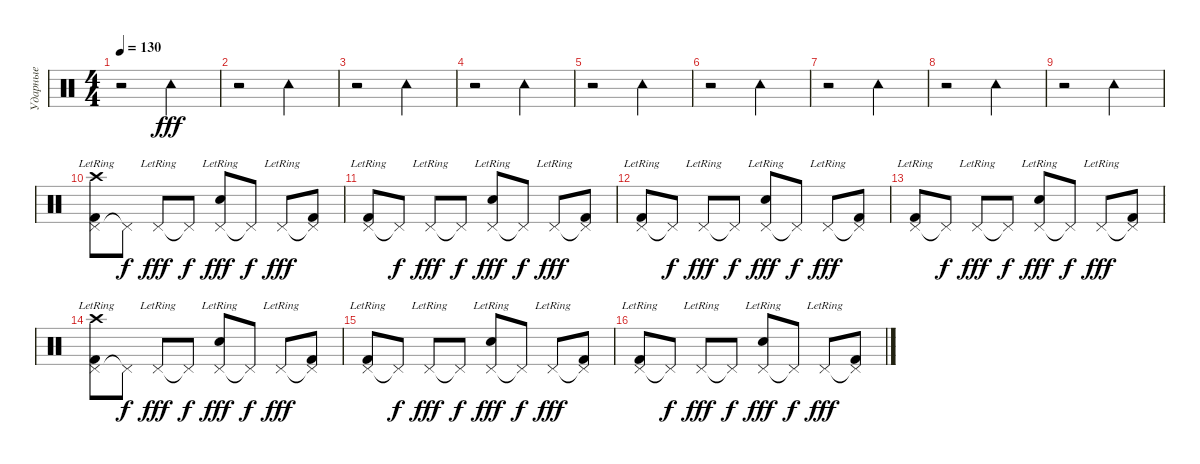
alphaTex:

\track ("Ударные" "Ударные") {instrument percussion}
\staff {score}
\articulation defaults
\ts (4 4)
\tempo 130
\clef neutral
\ks c
r.2{dy fff} "Tambourine (hit)".2 |
r.2 "Tambourine (hit)".2 |
r.2 "Tambourine (hit)".2 |
r.2 "Tambourine (hit)".2 |
r.2 "Tambourine (hit)".2 |
r.2 "Tambourine (hit)".2 |
r.2 "Tambourine (hit)".2 |
r.2 "Tambourine (hit)".2 |
r.2 "Tambourine (hit)".2 |
("Pedal Hi-Hat (hit)"{lr} "Kick (hit) 2" "Crash high (hit)"{lr}).8 "Pedal Hi-Hat (hit)"{t}.8{dy f} "Pedal Hi-Hat (hit)"{lr}.8{dy fff} "Pedal Hi-Hat (hit)"{t}.8{dy f} ("Pedal Hi-Hat (hit)"{lr} "Snare (hit) 2").8{dy fff} "Pedal Hi-Hat (hit)"{t}.8{dy f} "Pedal Hi-Hat (hit)"{lr}.8{dy fff} ("Pedal Hi-Hat (hit)"{t} "Kick (hit) 2").8 |
("Pedal Hi-Hat (hit)"{lr} "Kick (hit) 2").8 "Pedal Hi-Hat (hit)"{t}.8{dy f} "Pedal Hi-Hat (hit)"{lr}.8{dy fff} "Pedal Hi-Hat (hit)"{t}.8{dy f} ("Pedal Hi-Hat (hit)"{lr} "Snare (hit) 2").8{dy fff} "Pedal Hi-Hat (hit)"{t}.8{dy f} "Pedal Hi-Hat (hit)"{lr}.8{dy fff} ("Pedal Hi-Hat (hit)"{t} "Kick (hit) 2").8 |
("Pedal Hi-Hat (hit)"{lr} "Kick (hit) 2").8 "Pedal Hi-Hat (hit)"{t}.8{dy f} "Pedal Hi-Hat (hit)"{lr}.8{dy fff} "Pedal Hi-Hat (hit)"{t}.8{dy f} ("Pedal Hi-Hat (hit)"{lr} "Snare (hit) 2").8{dy fff} "Pedal Hi-Hat (hit)"{t}.8{dy f} "Pedal Hi-Hat (hit)"{lr}.8{dy fff} ("Pedal Hi-Hat (hit)"{t} "Kick (hit) 2").8 |
("Pedal Hi-Hat (hit)"{lr} "Kick (hit) 2").8 "Pedal Hi-Hat (hit)"{t}.8{dy f} "Pedal Hi-Hat (hit)"{lr}.8{dy fff} "Pedal Hi-Hat (hit)"{t}.8{dy f} ("Pedal Hi-Hat (hit)"{lr} "Snare (hit) 2").8{dy fff} "Pedal Hi-Hat (hit)"{t}.8{dy f} "Pedal Hi-Hat (hit)"{lr}.8{dy fff} ("Pedal Hi-Hat (hit)"{t} "Kick (hit) 2").8 |
("Pedal Hi-Hat (hit)"{lr} "Kick (hit) 2" "Crash high (hit)"{lr}).8 "Pedal Hi-Hat (hit)"{t}.8{dy f} "Pedal Hi-Hat (hit)"{lr}.8{dy fff} "Pedal Hi-Hat (hit)"{t}.8{dy f} ("Pedal Hi-Hat (hit)"{lr} "Snare (hit) 2").8{dy fff} "Pedal Hi-Hat (hit)"{t}.8{dy f} "Pedal Hi-Hat (hit)"{lr}.8{dy fff} ("Pedal Hi-Hat (hit)"{t} "Kick (hit) 2").8 |
("Pedal Hi-Hat (hit)"{lr} "Kick (hit) 2").8 "Pedal Hi-Hat (hit)"{t}.8{dy f} "Pedal Hi-Hat (hit)"{lr}.8{dy fff} "Pedal Hi-Hat (hit)"{t}.8{dy f} ("Pedal Hi-Hat (hit)"{lr} "Snare (hit) 2").8{dy fff} "Pedal Hi-Hat (hit)"{t}.8{dy f} "Pedal Hi-Hat (hit)"{lr}.8{dy fff} ("Pedal Hi-Hat (hit)"{t} "Kick (hit) 2").8 |
("Pedal Hi-Hat (hit)"{lr} "Kick (hit) 2").8 "Pedal Hi-Hat (hit)"{t}.8{dy f} "Pedal Hi-Hat (hit)"{lr}.8{dy fff} "Pedal Hi-Hat (hit)"{t}.8{dy f} ("Pedal Hi-Hat (hit)"{lr} "Snare (hit) 2").8{dy fff} "Pedal Hi-Hat (hit)"{t}.8{dy f} "Pedal Hi-Hat (hit)"{lr}.8{dy fff} ("Pedal Hi-Hat (hit)"{t} "Kick (hit) 2").8
